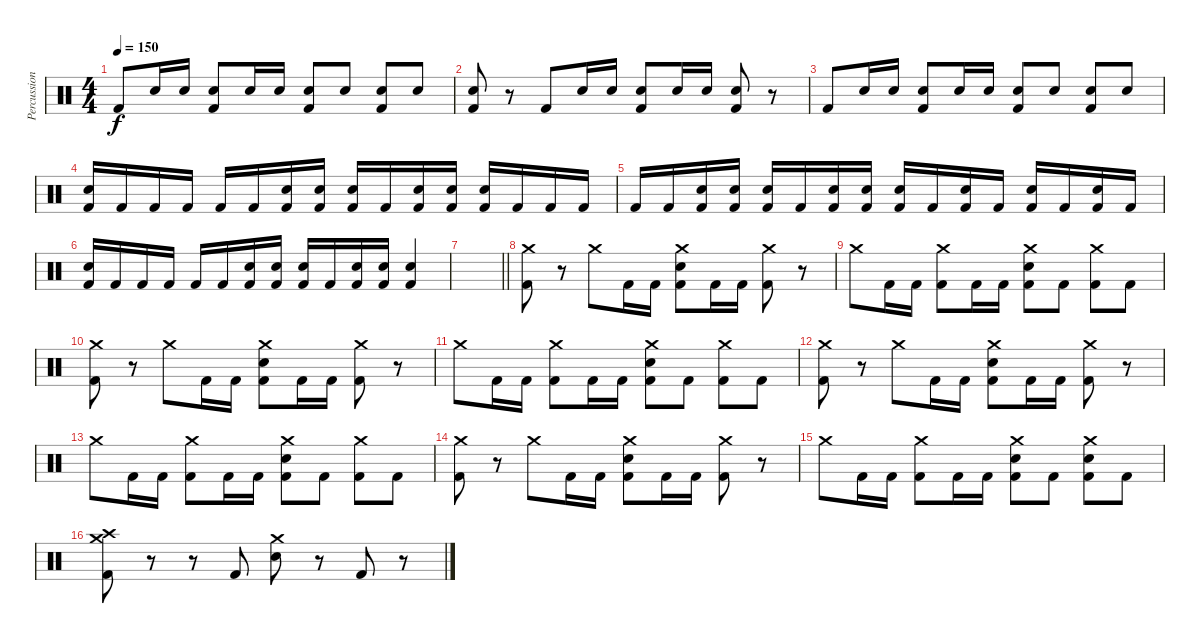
\track ("Percussion" "Percussion") {instrument percussion}
\staff {score}
\articulation defaults
\ts (4 4)
\tempo 150
\clef neutral
\ks c "Kick (hit) 2".8{dy f} "Snare (hit) 2".16 "Snare (hit) 2".16
("Snare (hit) 2" "Kick (hit) 2").8 "Snare (hit) 2".16 "Snare (hit) 2".16 ("Snare (hit) 2" "Kick (hit) 2").8 "Snare (hit) 2".8 ("Snare (hit) 2" "Kick (hit) 2").8 "Snare (hit) 2".8 |
("Snare (hit) 2" "Kick (hit) 2").8 r.8 "Kick (hit) 2".8 "Snare (hit) 2".16 "Snare (hit) 2".16 ("Snare (hit) 2" "Kick (hit) 2").8 "Snare (hit) 2".16 "Snare (hit) 2".16 ("Snare (hit) 2" "Kick (hit) 2").8 r.8 |
"Kick (hit) 2".8 "Snare (hit) 2".16 "Snare (hit) 2".16 ("Snare (hit) 2" "Kick (hit) 2").8 "Snare (hit) 2".16 "Snare (hit) 2".16 ("Snare (hit) 2" "Kick (hit) 2").8 "Snare (hit) 2".8 ("Snare (hit) 2" "Kick (hit) 2").8 "Snare (hit) 2".8 |
("Snare (hit) 2" "Kick (hit) 2").16 "Kick (hit) 2".16 "Kick (hit) 2".16 "Kick (hit) 2".16 "Kick (hit) 2".16 "Kick (hit) 2".16 ("Snare (hit) 2" "Kick (hit) 2").16 ("Snare (hit) 2" "Kick (hit) 2").16 ("Snare (hit) 2" "Kick (hit) 2").16 "Kick (hit) 2".16 ("Snare (hit) 2" "Kick (hit) 2").16 ("Snare (hit) 2" "Kick (hit) 2").16 ("Snare (hit) 2" "Kick (hit) 2").16 "Kick (hit) 2".16 "Kick (hit) 2".16 "Kick (hit) 2".16 |
"Kick (hit) 2".16 "Kick (hit) 2".16 ("Snare (hit) 2" "Kick (hit) 2").16 ("Snare (hit) 2" "Kick (hit) 2").16 ("Snare (hit) 2" "Kick (hit) 2").16 "Kick (hit) 2".16 ("Snare (hit) 2" "Kick (hit) 2").16 ("Snare (hit) 2" "Kick (hit) 2").16 ("Snare (hit) 2" "Kick (hit) 2").16 "Kick (hit) 2".16 ("Snare (hit) 2" "Kick (hit) 2").16 "Kick (hit) 2".16 ("Snare (hit) 2" "Kick (hit) 2").16 "Kick (hit) 2".16 ("Snare (hit) 2" "Kick (hit) 2").16 "Kick (hit) 2".16 |
("Snare (hit) 2" "Kick (hit) 2").16 "Kick (hit) 2".16 "Kick (hit) 2".16 "Kick (hit) 2".16 "Kick (hit) 2".16 "Kick (hit) 2".16 ("Snare (hit) 2" "Kick (hit) 2").16 ("Snare (hit) 2" "Kick (hit) 2").16 ("Snare (hit) 2" "Kick (hit) 2").16 "Kick (hit) 2".16 ("Snare (hit) 2" "Kick (hit) 2").16 ("Snare (hit) 2" "Kick (hit) 2").16 ("Snare (hit) 2" "Kick (hit) 2").4 |
\barLineRight lightlight
|
\section ("" "")
("Crash medium (hit)" "Kick (hit) 2").8 r.8 "Crash medium (hit)".8 "Kick (hit) 2".16 "Kick (hit) 2".16 ("Crash medium (hit)" "Snare (hit) 2" "Kick (hit) 2").8 "Kick (hit) 2".16 "Kick (hit) 2".16 ("Crash medium (hit)" "Kick (hit) 2").8 r.8 |
"Crash medium (hit)".8 "Kick (hit) 2".16 "Kick (hit) 2".16 ("Crash medium (hit)" "Kick (hit) 2").8 "Kick (hit) 2".16 "Kick (hit) 2".16 ("Crash medium (hit)" "Snare (hit) 2" "Kick (hit) 2").8 "Kick (hit) 2".8 ("Crash medium (hit)" "Kick (hit) 2").8 "Kick (hit) 2".8 |
("Crash medium (hit)" "Kick (hit) 2").8 r.8 "Crash medium (hit)".8 "Kick (hit) 2".16 "Kick (hit) 2".16 ("Crash medium (hit)" "Snare (hit) 2" "Kick (hit) 2").8 "Kick (hit) 2".16 "Kick (hit) 2".16 ("Crash medium (hit)" "Kick (hit) 2").8 r.8 |
"Crash medium (hit)".8 "Kick (hit) 2".16 "Kick (hit) 2".16 ("Crash medium (hit)" "Kick (hit) 2").8 "Kick (hit) 2".16 "Kick (hit) 2".16 ("Crash medium (hit)" "Snare (hit) 2" "Kick (hit) 2").8 "Kick (hit) 2".8 ("Crash medium (hit)" "Kick (hit) 2").8 "Kick (hit) 2".8 |
("Crash medium (hit)" "Kick (hit) 2").8 r.8 "Crash medium (hit)".8 "Kick (hit) 2".16 "Kick (hit) 2".16 ("Crash medium (hit)" "Snare (hit) 2" "Kick (hit) 2").8 "Kick (hit) 2".16 "Kick (hit) 2".16 ("Crash medium (hit)" "Kick (hit) 2").8 r.8 |
"Crash medium (hit)".8 "Kick (hit) 2".16 "Kick (hit) 2".16 ("Crash medium (hit)" "Kick (hit) 2").8 "Kick (hit) 2".16 "Kick (hit) 2".16 ("Crash medium (hit)" "Snare (hit) 2" "Kick (hit) 2").8 "Kick (hit) 2".8 ("Crash medium (hit)" "Kick (hit) 2").8 "Kick (hit) 2".8 |
("Crash medium (hit)" "Kick (hit) 2").8 r.8 "Crash medium (hit)".8 "Kick (hit) 2".16 "Kick (hit) 2".16 ("Crash medium (hit)" "Snare (hit) 2" "Kick (hit) 2").8 "Kick (hit) 2".16 "Kick (hit) 2".16 ("Crash medium (hit)" "Kick (hit) 2").8 r.8 |
"Crash medium (hit)".8 "Kick (hit) 2".16 "Kick (hit) 2".16 ("Crash medium (hit)" "Kick (hit) 2").8 "Kick (hit) 2".16 "Kick (hit) 2".16 ("Crash medium (hit)" "Snare (hit) 2" "Kick (hit) 2").8 "Kick (hit) 2".8 ("Crash medium (hit)" "Snare (hit) 2" "Kick (hit) 2").8 "Kick (hit) 2".8 |
("Crash medium (hit)" "Crash high (hit)" "Kick (hit) 2").8 r.8 r.8 "Kick (hit) 2".8 ("Crash medium (hit)" "Snare (hit) 2").8 r.8 "Kick (hit) 2".8 r.8
